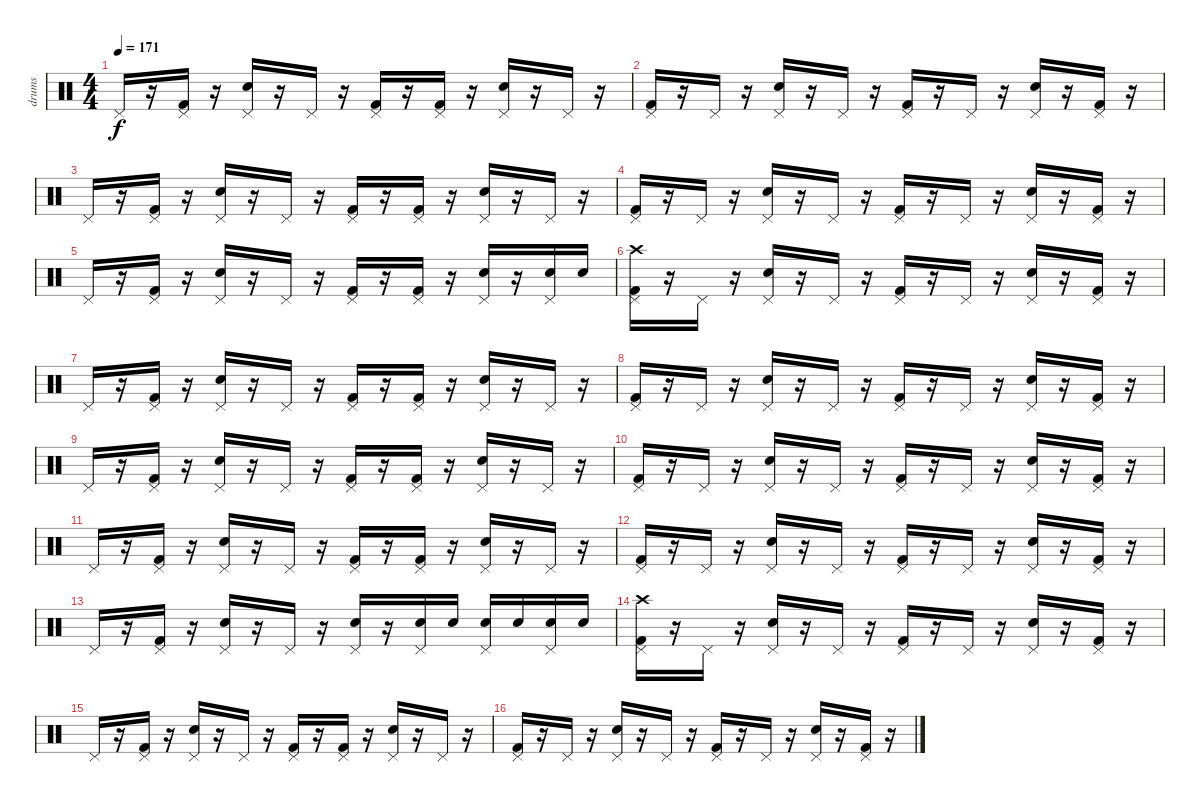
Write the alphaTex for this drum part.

\track ("drums" "drums") {instrument percussion}
\staff {score}
\articulation defaults
\ts (4 4)
\tempo 171
\clef neutral
\ks c "Pedal Hi-Hat (hit)".16{dy f}
r.16 ("Pedal Hi-Hat (hit)" "Kick (hit) 2").16 r.16 ("Pedal Hi-Hat (hit)" "Electric Snare (hit)").16 r.16 "Pedal Hi-Hat (hit)".16 r.16 ("Pedal Hi-Hat (hit)" "Kick (hit) 2").16 r.16 ("Pedal Hi-Hat (hit)" "Kick (hit) 2").16 r.16 ("Pedal Hi-Hat (hit)" "Electric Snare (hit)").16 r.16 "Pedal Hi-Hat (hit)".16 r.16 |
("Pedal Hi-Hat (hit)" "Kick (hit) 2").16 r.16 "Pedal Hi-Hat (hit)".16 r.16 ("Pedal Hi-Hat (hit)" "Electric Snare (hit)").16 r.16 "Pedal Hi-Hat (hit)".16 r.16 ("Pedal Hi-Hat (hit)" "Kick (hit) 2").16 r.16 "Pedal Hi-Hat (hit)".16 r.16 ("Pedal Hi-Hat (hit)" "Electric Snare (hit)").16 r.16 ("Pedal Hi-Hat (hit)" "Kick (hit) 2").16 r.16 |
"Pedal Hi-Hat (hit)".16 r.16 ("Pedal Hi-Hat (hit)" "Kick (hit) 2").16 r.16 ("Pedal Hi-Hat (hit)" "Electric Snare (hit)").16 r.16 "Pedal Hi-Hat (hit)".16 r.16 ("Pedal Hi-Hat (hit)" "Kick (hit) 2").16 r.16 ("Pedal Hi-Hat (hit)" "Kick (hit) 2").16 r.16 ("Pedal Hi-Hat (hit)" "Electric Snare (hit)").16 r.16 "Pedal Hi-Hat (hit)".16 r.16 |
("Pedal Hi-Hat (hit)" "Kick (hit) 2").16 r.16 "Pedal Hi-Hat (hit)".16 r.16 ("Pedal Hi-Hat (hit)" "Electric Snare (hit)").16 r.16 "Pedal Hi-Hat (hit)".16 r.16 ("Pedal Hi-Hat (hit)" "Kick (hit) 2").16 r.16 "Pedal Hi-Hat (hit)".16 r.16 ("Pedal Hi-Hat (hit)" "Electric Snare (hit)").16 r.16 ("Pedal Hi-Hat (hit)" "Kick (hit) 2").16 r.16 |
"Pedal Hi-Hat (hit)".16 r.16 ("Pedal Hi-Hat (hit)" "Kick (hit) 2").16 r.16 ("Pedal Hi-Hat (hit)" "Electric Snare (hit)").16 r.16 "Pedal Hi-Hat (hit)".16 r.16 ("Pedal Hi-Hat (hit)" "Kick (hit) 2").16 r.16 ("Pedal Hi-Hat (hit)" "Kick (hit) 2").16 r.16 ("Pedal Hi-Hat (hit)" "Electric Snare (hit)").16 r.16 ("Pedal Hi-Hat (hit)" "Electric Snare (hit)").16 "Electric Snare (hit)".16 |
("Pedal Hi-Hat (hit)" "Crash high (hit)" "Kick (hit) 2").16 r.16 "Pedal Hi-Hat (hit)".16 r.16 ("Pedal Hi-Hat (hit)" "Electric Snare (hit)").16 r.16 "Pedal Hi-Hat (hit)".16 r.16 ("Pedal Hi-Hat (hit)" "Kick (hit) 2").16 r.16 "Pedal Hi-Hat (hit)".16 r.16 ("Pedal Hi-Hat (hit)" "Electric Snare (hit)").16 r.16 ("Pedal Hi-Hat (hit)" "Kick (hit) 2").16 r.16 |
"Pedal Hi-Hat (hit)".16 r.16 ("Pedal Hi-Hat (hit)" "Kick (hit) 2").16 r.16 ("Pedal Hi-Hat (hit)" "Electric Snare (hit)").16 r.16 "Pedal Hi-Hat (hit)".16 r.16 ("Pedal Hi-Hat (hit)" "Kick (hit) 2").16 r.16 ("Pedal Hi-Hat (hit)" "Kick (hit) 2").16 r.16 ("Pedal Hi-Hat (hit)" "Electric Snare (hit)").16 r.16 "Pedal Hi-Hat (hit)".16 r.16 |
("Pedal Hi-Hat (hit)" "Kick (hit) 2").16 r.16 "Pedal Hi-Hat (hit)".16 r.16 ("Pedal Hi-Hat (hit)" "Electric Snare (hit)").16 r.16 "Pedal Hi-Hat (hit)".16 r.16 ("Pedal Hi-Hat (hit)" "Kick (hit) 2").16 r.16 "Pedal Hi-Hat (hit)".16 r.16 ("Pedal Hi-Hat (hit)" "Electric Snare (hit)").16 r.16 ("Pedal Hi-Hat (hit)" "Kick (hit) 2").16 r.16 |
"Pedal Hi-Hat (hit)".16 r.16 ("Pedal Hi-Hat (hit)" "Kick (hit) 2").16 r.16 ("Pedal Hi-Hat (hit)" "Electric Snare (hit)").16 r.16 "Pedal Hi-Hat (hit)".16 r.16 ("Pedal Hi-Hat (hit)" "Kick (hit) 2").16 r.16 ("Pedal Hi-Hat (hit)" "Kick (hit) 2").16 r.16 ("Pedal Hi-Hat (hit)" "Electric Snare (hit)").16 r.16 "Pedal Hi-Hat (hit)".16 r.16 |
("Pedal Hi-Hat (hit)" "Kick (hit) 2").16 r.16 "Pedal Hi-Hat (hit)".16 r.16 ("Pedal Hi-Hat (hit)" "Electric Snare (hit)").16 r.16 "Pedal Hi-Hat (hit)".16 r.16 ("Pedal Hi-Hat (hit)" "Kick (hit) 2").16 r.16 "Pedal Hi-Hat (hit)".16 r.16 ("Pedal Hi-Hat (hit)" "Electric Snare (hit)").16 r.16 ("Pedal Hi-Hat (hit)" "Kick (hit) 2").16 r.16 |
"Pedal Hi-Hat (hit)".16 r.16 ("Pedal Hi-Hat (hit)" "Kick (hit) 2").16 r.16 ("Pedal Hi-Hat (hit)" "Electric Snare (hit)").16 r.16 "Pedal Hi-Hat (hit)".16 r.16 ("Pedal Hi-Hat (hit)" "Kick (hit) 2").16 r.16 ("Pedal Hi-Hat (hit)" "Kick (hit) 2").16 r.16 ("Pedal Hi-Hat (hit)" "Electric Snare (hit)").16 r.16 "Pedal Hi-Hat (hit)".16 r.16 |
("Pedal Hi-Hat (hit)" "Kick (hit) 2").16 r.16 "Pedal Hi-Hat (hit)".16 r.16 ("Pedal Hi-Hat (hit)" "Electric Snare (hit)").16 r.16 "Pedal Hi-Hat (hit)".16 r.16 ("Pedal Hi-Hat (hit)" "Kick (hit) 2").16 r.16 "Pedal Hi-Hat (hit)".16 r.16 ("Pedal Hi-Hat (hit)" "Electric Snare (hit)").16 r.16 ("Pedal Hi-Hat (hit)" "Kick (hit) 2").16 r.16 |
"Pedal Hi-Hat (hit)".16 r.16 ("Pedal Hi-Hat (hit)" "Kick (hit) 2").16 r.16 ("Pedal Hi-Hat (hit)" "Electric Snare (hit)").16 r.16 "Pedal Hi-Hat (hit)".16 r.16 ("Pedal Hi-Hat (hit)" "Electric Snare (hit)").16 r.16 ("Pedal Hi-Hat (hit)" "Electric Snare (hit)").16 "Electric Snare (hit)".16 ("Pedal Hi-Hat (hit)" "Electric Snare (hit)").16 "Electric Snare (hit)".16 ("Pedal Hi-Hat (hit)" "Electric Snare (hit)").16 "Electric Snare (hit)".16 |
("Pedal Hi-Hat (hit)" "Crash high (hit)" "Kick (hit) 2").16 r.16 "Pedal Hi-Hat (hit)".16 r.16 ("Pedal Hi-Hat (hit)" "Electric Snare (hit)").16 r.16 "Pedal Hi-Hat (hit)".16 r.16 ("Pedal Hi-Hat (hit)" "Kick (hit) 2").16 r.16 "Pedal Hi-Hat (hit)".16 r.16 ("Pedal Hi-Hat (hit)" "Electric Snare (hit)").16 r.16 ("Pedal Hi-Hat (hit)" "Kick (hit) 2").16 r.16 |
"Pedal Hi-Hat (hit)".16 r.16 ("Pedal Hi-Hat (hit)" "Kick (hit) 2").16 r.16 ("Pedal Hi-Hat (hit)" "Electric Snare (hit)").16 r.16 "Pedal Hi-Hat (hit)".16 r.16 ("Pedal Hi-Hat (hit)" "Kick (hit) 2").16 r.16 ("Pedal Hi-Hat (hit)" "Kick (hit) 2").16 r.16 ("Pedal Hi-Hat (hit)" "Electric Snare (hit)").16 r.16 "Pedal Hi-Hat (hit)".16 r.16 |
("Pedal Hi-Hat (hit)" "Kick (hit) 2").16 r.16 "Pedal Hi-Hat (hit)".16 r.16 ("Pedal Hi-Hat (hit)" "Electric Snare (hit)").16 r.16 "Pedal Hi-Hat (hit)".16 r.16 ("Pedal Hi-Hat (hit)" "Kick (hit) 2").16 r.16 "Pedal Hi-Hat (hit)".16 r.16 ("Pedal Hi-Hat (hit)" "Electric Snare (hit)").16 r.16 ("Pedal Hi-Hat (hit)" "Kick (hit) 2").16 r.16
